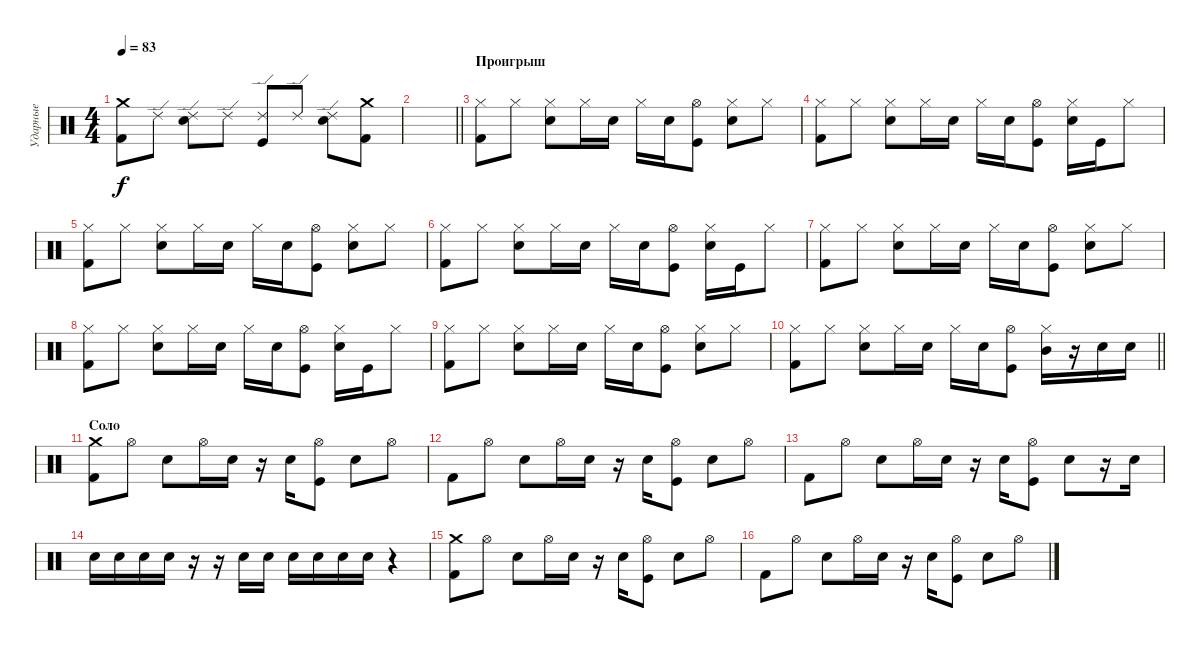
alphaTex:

\track ("Ударные" "Ударные") {instrument percussion}
\staff {score}
\articulation defaults
\ts (4 4)
\tempo 83
\clef neutral
\ks c
("Crash medium (hit)" "Kick (hit) 2").8{dy f} "Ride (edge) 2".8 ("Ride (edge) 2" "Snare (hit) 2").8 "Ride (edge) 2".8 ("Ride (edge) 2" "Kick (hit)").8 "Ride (edge) 2".8 ("Ride (edge) 2" "Snare (hit) 2").8 ("Crash medium (hit)" "Kick (hit) 2").8 |
\barLineRight lightlight
|
\section ("" "Проигрыш")
("Hi-Hat (closed)" "Kick (hit) 2").8 "Hi-Hat (closed)".8 ("Hi-Hat (closed)" "Snare (hit) 2").8 "Hi-Hat (closed)".16 "Snare (hit) 2".16 "Hi-Hat (closed)".16 "Snare (hit) 2".16 ("Hi-Hat (open)" "Kick (hit)").8 ("Hi-Hat (closed)" "Snare (hit) 2").8 "Hi-Hat (closed)".8 |
("Hi-Hat (closed)" "Kick (hit) 2").8 "Hi-Hat (closed)".8 ("Hi-Hat (closed)" "Snare (hit) 2").8 "Hi-Hat (closed)".16 "Snare (hit) 2".16 "Hi-Hat (closed)".16 "Snare (hit) 2".16 ("Hi-Hat (open)" "Kick (hit)").8 ("Hi-Hat (closed)" "Snare (hit) 2").16 "Kick (hit)".16 "Hi-Hat (closed)".8 |
("Hi-Hat (closed)" "Kick (hit) 2").8 "Hi-Hat (closed)".8 ("Hi-Hat (closed)" "Snare (hit) 2").8 "Hi-Hat (closed)".16 "Snare (hit) 2".16 "Hi-Hat (closed)".16 "Snare (hit) 2".16 ("Hi-Hat (open)" "Kick (hit)").8 ("Hi-Hat (closed)" "Snare (hit) 2").8 "Hi-Hat (closed)".8 |
("Hi-Hat (closed)" "Kick (hit) 2").8 "Hi-Hat (closed)".8 ("Hi-Hat (closed)" "Snare (hit) 2").8 "Hi-Hat (closed)".16 "Snare (hit) 2".16 "Hi-Hat (closed)".16 "Snare (hit) 2".16 ("Hi-Hat (open)" "Kick (hit)").8 ("Hi-Hat (closed)" "Snare (hit) 2").16 "Kick (hit)".16 "Hi-Hat (closed)".8 |
("Hi-Hat (closed)" "Kick (hit) 2").8 "Hi-Hat (closed)".8 ("Hi-Hat (closed)" "Snare (hit) 2").8 "Hi-Hat (closed)".16 "Snare (hit) 2".16 "Hi-Hat (closed)".16 "Snare (hit) 2".16 ("Hi-Hat (open)" "Kick (hit)").8 ("Hi-Hat (closed)" "Snare (hit) 2").8 "Hi-Hat (closed)".8 |
("Hi-Hat (closed)" "Kick (hit) 2").8 "Hi-Hat (closed)".8 ("Hi-Hat (closed)" "Snare (hit) 2").8 "Hi-Hat (closed)".16 "Snare (hit) 2".16 "Hi-Hat (closed)".16 "Snare (hit) 2".16 ("Hi-Hat (open)" "Kick (hit)").8 ("Hi-Hat (closed)" "Snare (hit) 2").16 "Kick (hit)".16 "Hi-Hat (closed)".8 |
("Hi-Hat (closed)" "Kick (hit) 2").8 "Hi-Hat (closed)".8 ("Hi-Hat (closed)" "Snare (hit) 2").8 "Hi-Hat (closed)".16 "Snare (hit) 2".16 "Hi-Hat (closed)".16 "Snare (hit) 2".16 ("Hi-Hat (open)" "Kick (hit)").8 ("Hi-Hat (closed)" "Snare (hit) 2").8 "Hi-Hat (closed)".8 |
\barLineRight lightlight
("Hi-Hat (closed)" "Kick (hit) 2").8 "Hi-Hat (closed)".8 ("Hi-Hat (closed)" "Snare (hit) 2").8 "Hi-Hat (closed)".16 "Snare (hit) 2".16 "Hi-Hat (closed)".16 "Snare (hit) 2".16 ("Hi-Hat (open)" "Kick (hit)").8 ("Hi-Hat (closed)" "Mid Tom (hit)").16 r.16 "Snare (hit) 2".16 "Snare (hit) 2".16 |
\section ("" "Соло")
("Crash medium (hit)" "Kick (hit) 2").8 "Hi-Hat (open)".8 "Snare (hit) 2".8 "Hi-Hat (open)".16 "Snare (hit) 2".16 r.16 "Snare (hit) 2".16 ("Hi-Hat (open)" "Kick (hit)").8 "Snare (hit) 2".8 "Hi-Hat (open)".8 |
"Kick (hit) 2".8 "Hi-Hat (open)".8 "Snare (hit) 2".8 "Hi-Hat (open)".16 "Snare (hit) 2".16 r.16 "Snare (hit) 2".16 ("Hi-Hat (open)" "Kick (hit)").8 "Snare (hit) 2".8 "Hi-Hat (open)".8 |
"Kick (hit) 2".8 "Hi-Hat (open)".8 "Snare (hit) 2".8 "Hi-Hat (open)".16 "Snare (hit) 2".16 r.16 "Snare (hit) 2".16 ("Hi-Hat (open)" "Kick (hit)").8 "Snare (hit) 2".8 r.16 "Snare (hit) 2".16 |
"Snare (hit) 2".16 "Snare (hit) 2".16 "Snare (hit) 2".16 "Snare (hit) 2".16 r.16 r.16 "Snare (hit) 2".16 "Snare (hit) 2".16 "Snare (hit) 2".16 "Snare (hit) 2".16 "Snare (hit) 2".16 "Snare (hit) 2".16 r.4 |
("Crash medium (hit)" "Kick (hit) 2").8 "Hi-Hat (open)".8 "Snare (hit) 2".8 "Hi-Hat (open)".16 "Snare (hit) 2".16 r.16 "Snare (hit) 2".16 ("Hi-Hat (open)" "Kick (hit)").8 "Snare (hit) 2".8 "Hi-Hat (open)".8 |
"Kick (hit) 2".8 "Hi-Hat (open)".8 "Snare (hit) 2".8 "Hi-Hat (open)".16 "Snare (hit) 2".16 r.16 "Snare (hit) 2".16 ("Hi-Hat (open)" "Kick (hit)").8 "Snare (hit) 2".8 "Hi-Hat (open)".8
